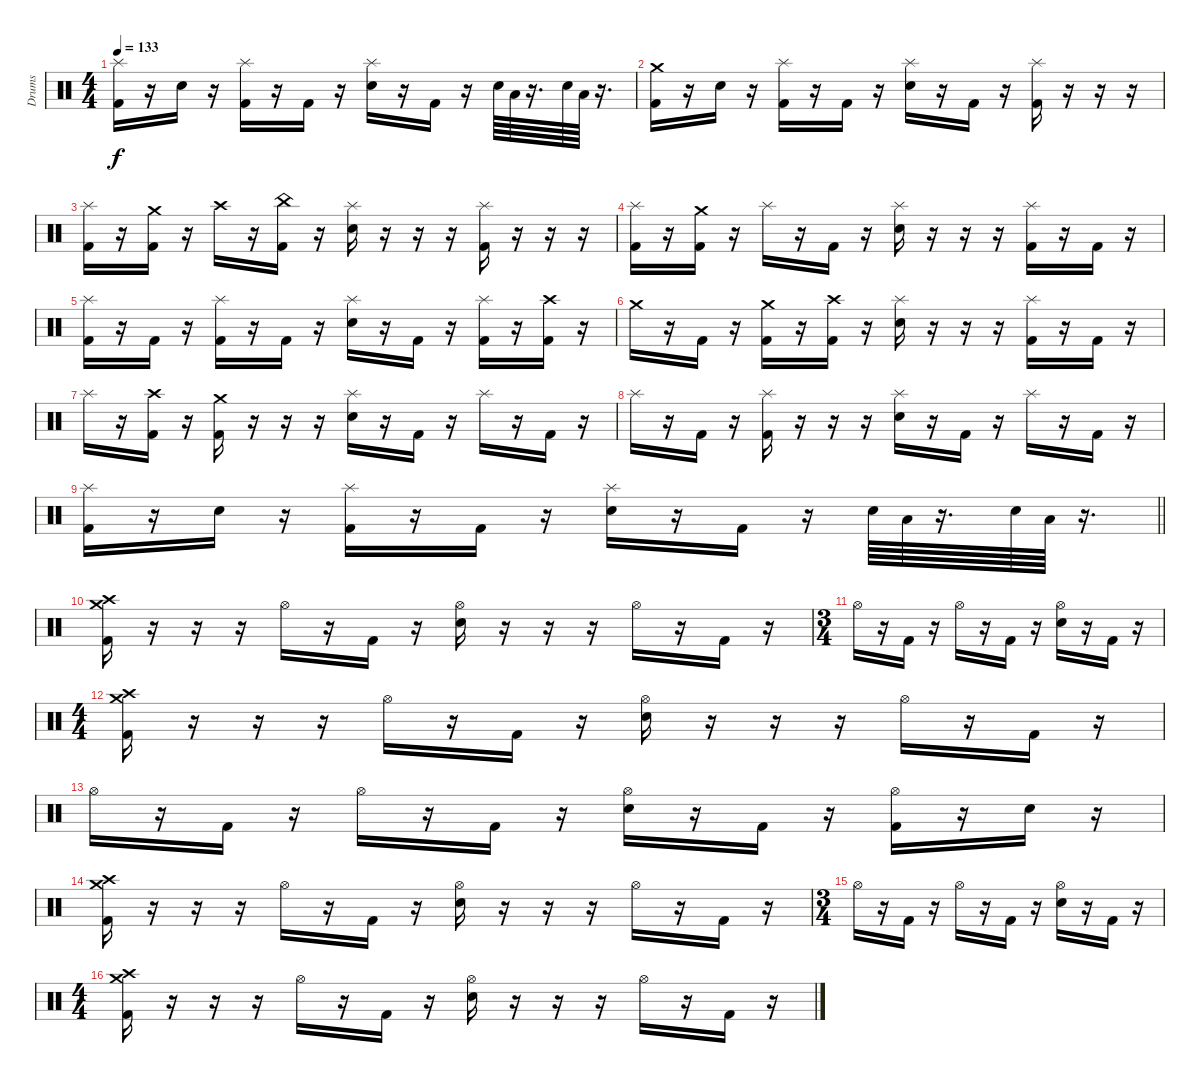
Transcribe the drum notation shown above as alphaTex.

\track ("Drums" "Drums") {instrument percussion}
\staff {score}
\articulation defaults
\ts (4 4)
\tempo 133
\clef neutral
\ks c
("Splash (hit)" "Kick (hit) 2").16{dy f} r.16 "Electric Snare (hit)".16 r.16 ("Splash (hit)" "Kick (hit) 2").16 r.16 "Kick (hit) 2".16 r.16 ("Splash (hit)" "Electric Snare (hit)").16 r.16 "Kick (hit) 2".16 r.16 "Electric Snare (hit)".64 "Low Tom (hit)".64 r.16{d} "Electric Snare (hit)".64 "Low Tom (hit)".64 r.16{d} |
("Crash medium (hit)" "Kick (hit) 2").16 r.16 "Electric Snare (hit)".16 r.16 ("Splash (hit)" "Kick (hit) 2").16 r.16 "Kick (hit) 2".16 r.16 ("Splash (hit)" "Electric Snare (hit)").16 r.16 "Kick (hit) 2".16 r.16 ("Splash (hit)" "Kick (hit) 2").16 r.16 r.16 r.16 |
("Splash (hit)" "Kick (hit) 2").16 r.16 ("Crash medium (hit)" "Kick (hit) 2").16 r.16 "Crash high (hit)".16 r.16 ("China (hit)" "Kick (hit) 2").16 r.16 ("Splash (hit)" "Electric Snare (hit)").16 r.16 r.16 r.16 ("Splash (hit)" "Kick (hit) 2").16 r.16 r.16 r.16 |
("Splash (hit)" "Kick (hit) 2").16 r.16 ("Crash medium (hit)" "Kick (hit) 2").16 r.16 "Splash (hit)".16 r.16 "Kick (hit) 2".16 r.16 ("Splash (hit)" "Electric Snare (hit)").16 r.16 r.16 r.16 ("Splash (hit)" "Kick (hit) 2").16 r.16 "Kick (hit) 2".16 r.16 |
("Splash (hit)" "Kick (hit) 2").16 r.16 "Kick (hit) 2".16 r.16 ("Splash (hit)" "Kick (hit) 2").16 r.16 "Kick (hit) 2".16 r.16 ("Splash (hit)" "Electric Snare (hit)").16 r.16 "Kick (hit) 2".16 r.16 ("Splash (hit)" "Kick (hit) 2").16 r.16 ("Crash high (hit)" "Kick (hit) 2").16 r.16 |
"Crash medium (hit)".16 r.16 "Kick (hit) 2".16 r.16 ("Crash medium (hit)" "Kick (hit) 2").16 r.16 ("Crash high (hit)" "Kick (hit) 2").16 r.16 ("Splash (hit)" "Electric Snare (hit)").16 r.16 r.16 r.16 ("Splash (hit)" "Kick (hit) 2").16 r.16 "Kick (hit) 2".16 r.16 |
"Splash (hit)".16 r.16 ("Crash high (hit)" "Kick (hit) 2").16 r.16 ("Crash medium (hit)" "Kick (hit) 2").16 r.16 r.16 r.16 ("Splash (hit)" "Electric Snare (hit)").16 r.16 "Kick (hit) 2".16 r.16 "Splash (hit)".16 r.16 "Kick (hit) 2".16 r.16 |
"Splash (hit)".16 r.16 "Kick (hit) 2".16 r.16 ("Splash (hit)" "Kick (hit) 2").16 r.16 r.16 r.16 ("Splash (hit)" "Electric Snare (hit)").16 r.16 "Kick (hit) 2".16 r.16 "Splash (hit)".16 r.16 "Kick (hit) 2".16 r.16 |
\barLineRight lightlight
("Splash (hit)" "Kick (hit) 2").16 r.16 "Electric Snare (hit)".16 r.16 ("Splash (hit)" "Kick (hit) 2").16 r.16 "Kick (hit) 2".16 r.16 ("Splash (hit)" "Electric Snare (hit)").16 r.16 "Kick (hit) 2".16 r.16 "Electric Snare (hit)".64 "Low Tom (hit)".64 r.16{d} "Electric Snare (hit)".64 "Low Tom (hit)".64 r.16{d} |
\section ("" "")
("Crash medium (hit)" "Crash high (hit)" "Kick (hit) 2").16 r.16 r.16 r.16 "Hi-Hat (open)".16 r.16 "Kick (hit) 2".16 r.16 ("Hi-Hat (open)" "Electric Snare (hit)").16 r.16 r.16 r.16 "Hi-Hat (open)".16 r.16 "Kick (hit) 2".16 r.16 |
\ts (3 4)
"Hi-Hat (open)".16 r.16 "Kick (hit) 2".16 r.16 "Hi-Hat (open)".16 r.16 "Kick (hit) 2".16 r.16 ("Hi-Hat (open)" "Electric Snare (hit)").16 r.16 "Kick (hit) 2".16 r.16 |
\ts (4 4)
("Crash medium (hit)" "Crash high (hit)" "Kick (hit) 2").16 r.16 r.16 r.16 "Hi-Hat (open)".16 r.16 "Kick (hit) 2".16 r.16 ("Hi-Hat (open)" "Electric Snare (hit)").16 r.16 r.16 r.16 "Hi-Hat (open)".16 r.16 "Kick (hit) 2".16 r.16 |
"Hi-Hat (open)".16 r.16 "Kick (hit) 2".16 r.16 "Hi-Hat (open)".16 r.16 "Kick (hit) 2".16 r.16 ("Hi-Hat (open)" "Electric Snare (hit)").16 r.16 "Kick (hit) 2".16 r.16 ("Hi-Hat (open)" "Kick (hit) 2").16 r.16 "Electric Snare (hit)".16 r.16 |
("Crash medium (hit)" "Crash high (hit)" "Kick (hit) 2").16 r.16 r.16 r.16 "Hi-Hat (open)".16 r.16 "Kick (hit) 2".16 r.16 ("Hi-Hat (open)" "Electric Snare (hit)").16 r.16 r.16 r.16 "Hi-Hat (open)".16 r.16 "Kick (hit) 2".16 r.16 |
\ts (3 4)
"Hi-Hat (open)".16 r.16 "Kick (hit) 2".16 r.16 "Hi-Hat (open)".16 r.16 "Kick (hit) 2".16 r.16 ("Hi-Hat (open)" "Electric Snare (hit)").16 r.16 "Kick (hit) 2".16 r.16 |
\ts (4 4)
("Crash medium (hit)" "Crash high (hit)" "Kick (hit) 2").16 r.16 r.16 r.16 "Hi-Hat (open)".16 r.16 "Kick (hit) 2".16 r.16 ("Hi-Hat (open)" "Electric Snare (hit)").16 r.16 r.16 r.16 "Hi-Hat (open)".16 r.16 "Kick (hit) 2".16 r.16
